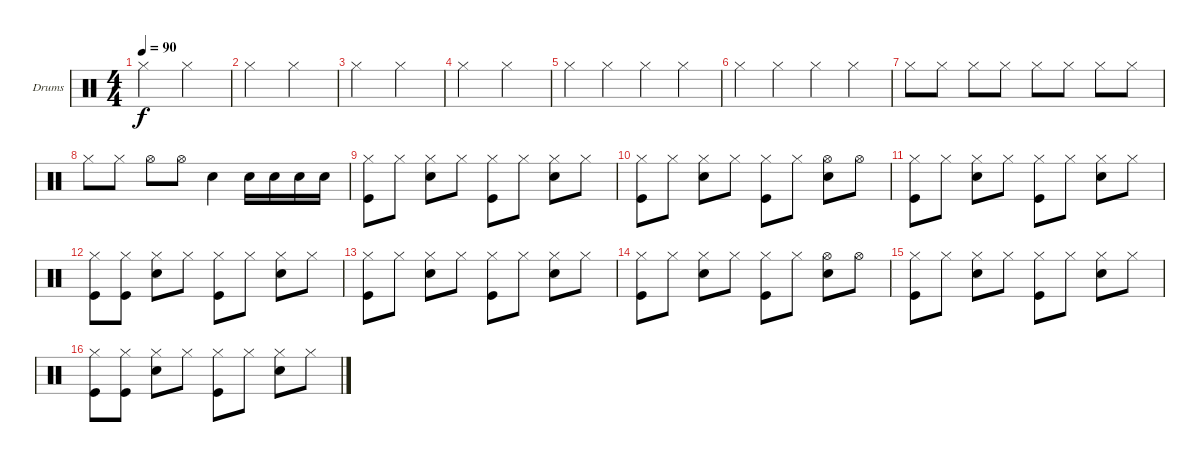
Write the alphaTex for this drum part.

\bracketExtendMode groupsimilarinstruments
\firstSystemTrackNameOrientation horizontal
\otherSystemsTrackNameOrientation horizontal
\track ("Drumkit" "Drums") {instrument percussion}
\staff {score}
\articulation defaults
\ts (4 4)
\beaming (8 2 2 2 2)
\tempo 90
\clef neutral
\ks c "Hi-Hat (closed)".2{dy f} "Hi-Hat (closed)".2
|
"Hi-Hat (closed)".2 "Hi-Hat (closed)".2 |
"Hi-Hat (closed)".2 "Hi-Hat (closed)".2 |
"Hi-Hat (closed)".2 "Hi-Hat (closed)".2 |
"Hi-Hat (closed)".4 "Hi-Hat (closed)".4 "Hi-Hat (closed)".4 "Hi-Hat (closed)".4 |
"Hi-Hat (closed)".4 "Hi-Hat (closed)".4 "Hi-Hat (closed)".4 "Hi-Hat (closed)".4 |
"Hi-Hat (closed)".8 "Hi-Hat (closed)".8 "Hi-Hat (closed)".8 "Hi-Hat (closed)".8 "Hi-Hat (closed)".8 "Hi-Hat (closed)".8 "Hi-Hat (closed)".8 "Hi-Hat (closed)".8 |
"Hi-Hat (closed)".8 "Hi-Hat (closed)".8 "Hi-Hat (open)".8 "Hi-Hat (open)".8 "Snare (hit) 2".4 "Snare (hit) 2".16 "Snare (hit) 2".16 "Snare (hit) 2".16 "Snare (hit) 2".16 |
("Kick (hit)" "Hi-Hat (closed)").8 "Hi-Hat (closed)".8 ("Hi-Hat (closed)" "Snare (hit) 2").8 "Hi-Hat (closed)".8 ("Hi-Hat (closed)" "Kick (hit)").8 "Hi-Hat (closed)".8 ("Hi-Hat (closed)" "Snare (hit) 2").8 "Hi-Hat (closed)".8 |
("Hi-Hat (closed)" "Kick (hit)").8 "Hi-Hat (closed)".8 ("Hi-Hat (closed)" "Snare (hit) 2").8 "Hi-Hat (closed)".8 ("Hi-Hat (closed)" "Kick (hit)").8 "Hi-Hat (closed)".8 ("Hi-Hat (open)" "Snare (hit) 2").8 "Hi-Hat (open)".8 |
("Kick (hit)" "Hi-Hat (closed)").8 "Hi-Hat (closed)".8 ("Hi-Hat (closed)" "Snare (hit) 2").8 "Hi-Hat (closed)".8 ("Hi-Hat (closed)" "Kick (hit)").8 "Hi-Hat (closed)".8 ("Hi-Hat (closed)" "Snare (hit) 2").8 "Hi-Hat (closed)".8 |
("Hi-Hat (closed)" "Kick (hit)").8 ("Hi-Hat (closed)" "Kick (hit)").8 ("Hi-Hat (closed)" "Snare (hit) 2").8 "Hi-Hat (closed)".8 ("Hi-Hat (closed)" "Kick (hit)").8 "Hi-Hat (closed)".8 ("Hi-Hat (closed)" "Snare (hit) 2").8 "Hi-Hat (closed)".8 |
("Kick (hit)" "Hi-Hat (closed)").8 "Hi-Hat (closed)".8 ("Hi-Hat (closed)" "Snare (hit) 2").8 "Hi-Hat (closed)".8 ("Hi-Hat (closed)" "Kick (hit)").8 "Hi-Hat (closed)".8 ("Hi-Hat (closed)" "Snare (hit) 2").8 "Hi-Hat (closed)".8 |
("Hi-Hat (closed)" "Kick (hit)").8 "Hi-Hat (closed)".8 ("Hi-Hat (closed)" "Snare (hit) 2").8 "Hi-Hat (closed)".8 ("Hi-Hat (closed)" "Kick (hit)").8 "Hi-Hat (closed)".8 ("Hi-Hat (open)" "Snare (hit) 2").8 "Hi-Hat (open)".8 |
("Kick (hit)" "Hi-Hat (closed)").8 "Hi-Hat (closed)".8 ("Hi-Hat (closed)" "Snare (hit) 2").8 "Hi-Hat (closed)".8 ("Hi-Hat (closed)" "Kick (hit)").8 "Hi-Hat (closed)".8 ("Hi-Hat (closed)" "Snare (hit) 2").8 "Hi-Hat (closed)".8 |
("Hi-Hat (closed)" "Kick (hit)").8 ("Hi-Hat (closed)" "Kick (hit)").8 ("Hi-Hat (closed)" "Snare (hit) 2").8 "Hi-Hat (closed)".8 ("Hi-Hat (closed)" "Kick (hit)").8 "Hi-Hat (closed)".8 ("Hi-Hat (closed)" "Snare (hit) 2").8 "Hi-Hat (closed)".8
